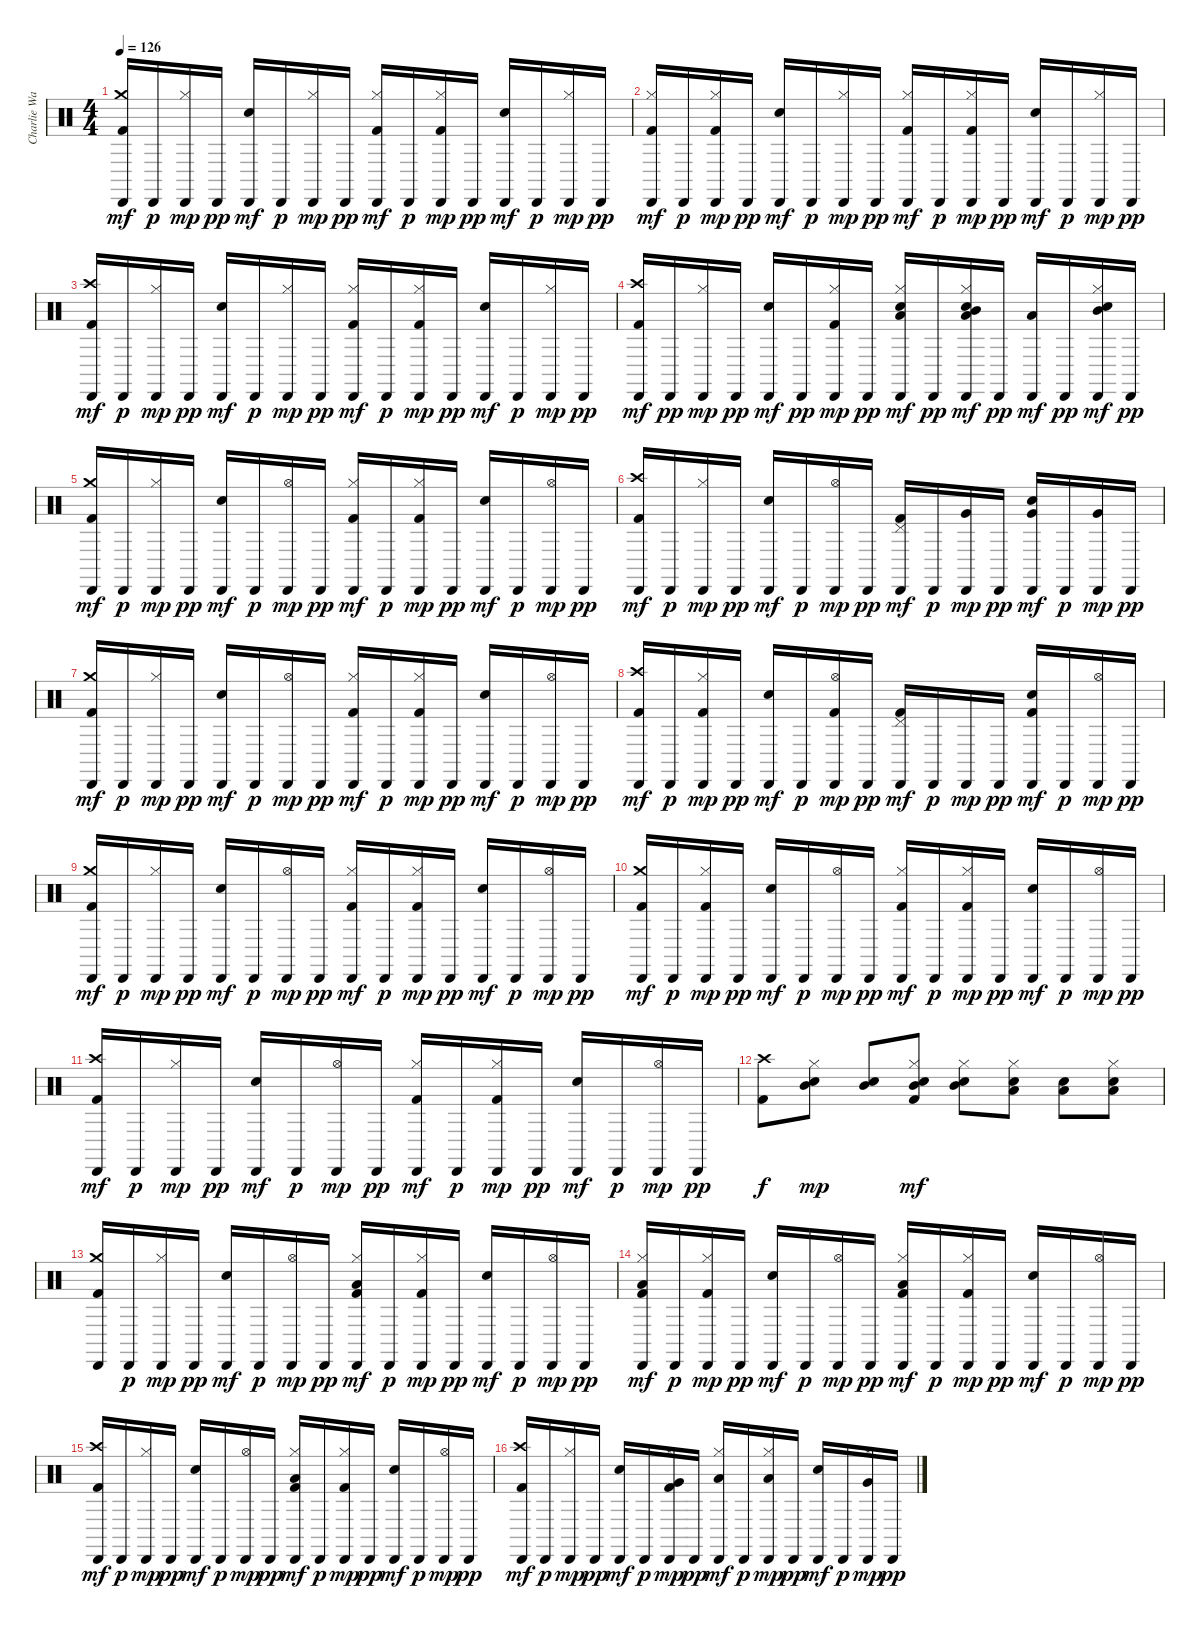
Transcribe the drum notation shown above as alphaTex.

\track ("Charlie Watts" "Charlie Wa") {instrument percussion}
\staff {score}
\articulation defaults
\ts (4 4)
\tempo 126
\clef neutral
\ks c
("Kick (hit) 2" "Crash medium (hit)" "Cabasa (hit)").16{dy mf} "Cabasa (hit)".16{dy p} ("Hi-Hat (closed)" "Cabasa (hit)").16{dy mp} "Cabasa (hit)".16{dy pp} ("Electric Snare (hit)" "Cabasa (hit)").16{dy mf} "Cabasa (hit)".16{dy p} ("Hi-Hat (closed)" "Cabasa (hit)").16{dy mp} "Cabasa (hit)".16{dy pp} ("Kick (hit) 2" "Hi-Hat (closed)" "Cabasa (hit)").16{dy mf} "Cabasa (hit)".16{dy p} ("Kick (hit) 2" "Hi-Hat (closed)" "Cabasa (hit)").16{dy mp} "Cabasa (hit)".16{dy pp} ("Electric Snare (hit)" "Cabasa (hit)").16{dy mf} "Cabasa (hit)".16{dy p} ("Hi-Hat (closed)" "Cabasa (hit)").16{dy mp} "Cabasa (hit)".16{dy pp} |
("Kick (hit) 2" "Hi-Hat (closed)" "Cabasa (hit)").16{dy mf} "Cabasa (hit)".16{dy p} ("Kick (hit) 2" "Hi-Hat (closed)" "Cabasa (hit)").16{dy mp} "Cabasa (hit)".16{dy pp} ("Electric Snare (hit)" "Cabasa (hit)").16{dy mf} "Cabasa (hit)".16{dy p} ("Hi-Hat (closed)" "Cabasa (hit)").16{dy mp} "Cabasa (hit)".16{dy pp} ("Kick (hit) 2" "Hi-Hat (closed)" "Cabasa (hit)").16{dy mf} "Cabasa (hit)".16{dy p} ("Kick (hit) 2" "Hi-Hat (closed)" "Cabasa (hit)").16{dy mp} "Cabasa (hit)".16{dy pp} ("Electric Snare (hit)" "Cabasa (hit)").16{dy mf} "Cabasa (hit)".16{dy p} ("Hi-Hat (closed)" "Cabasa (hit)").16{dy mp} "Cabasa (hit)".16{dy pp} |
("Kick (hit) 2" "Crash high (hit)" "Cabasa (hit)").16{dy mf} "Cabasa (hit)".16{dy p} ("Hi-Hat (closed)" "Cabasa (hit)").16{dy mp} "Cabasa (hit)".16{dy pp} ("Electric Snare (hit)" "Cabasa (hit)").16{dy mf} "Cabasa (hit)".16{dy p} ("Hi-Hat (closed)" "Cabasa (hit)").16{dy mp} "Cabasa (hit)".16{dy pp} ("Kick (hit) 2" "Hi-Hat (closed)" "Cabasa (hit)").16{dy mf} "Cabasa (hit)".16{dy p} ("Kick (hit) 2" "Hi-Hat (closed)" "Cabasa (hit)").16{dy mp} "Cabasa (hit)".16{dy pp} ("Electric Snare (hit)" "Cabasa (hit)").16{dy mf} "Cabasa (hit)".16{dy p} ("Hi-Hat (closed)" "Cabasa (hit)").16{dy mp} "Cabasa (hit)".16{dy pp} |
("Kick (hit) 2" "Crash high (hit)" "Cabasa (hit)").16{dy mf} "Cabasa (hit)".16{dy pp} ("Hi-Hat (closed)" "Cabasa (hit)").16{dy mp} "Cabasa (hit)".16{dy pp} ("Electric Snare (hit)" "Cabasa (hit)").16{dy mf} "Cabasa (hit)".16{dy pp} ("Kick (hit) 2" "Hi-Hat (closed)" "Cabasa (hit)").16{dy mp} "Cabasa (hit)".16{dy pp} ("Electric Snare (hit)" "Hi-Hat (closed)" "Cabasa (hit)" "Low Tom (hit)").16{dy mf} "Cabasa (hit)".16{dy pp} ("Electric Snare (hit)" "Hi-Hat (closed)" "Cabasa (hit)" "Low Tom (hit)" "Mid Tom (hit)").16{dy mf} "Cabasa (hit)".16{dy pp} ("Low Tom (hit)" "Cabasa (hit)").16{dy mf} "Cabasa (hit)".16{dy pp} ("Electric Snare (hit)" "Hi-Hat (closed)" "Cabasa (hit)" "Mid Tom (hit)").16{dy mf} "Cabasa (hit)".16{dy pp} |
("Kick (hit) 2" "Crash medium (hit)" "Cabasa (hit)").16{dy mf} "Cabasa (hit)".16{dy p} ("Hi-Hat (closed)" "Cabasa (hit)").16{dy mp} "Cabasa (hit)".16{dy pp} ("Electric Snare (hit)" "Cabasa (hit)").16{dy mf} "Cabasa (hit)".16{dy p} ("Hi-Hat (open)" "Cabasa (hit)").16{dy mp} "Cabasa (hit)".16{dy pp} ("Kick (hit) 2" "Hi-Hat (closed)" "Cabasa (hit)").16{dy mf} "Cabasa (hit)".16{dy p} ("Kick (hit) 2" "Hi-Hat (closed)" "Cabasa (hit)").16{dy mp} "Cabasa (hit)".16{dy pp} ("Electric Snare (hit)" "Cabasa (hit)").16{dy mf} "Cabasa (hit)".16{dy p} ("Hi-Hat (open)" "Cabasa (hit)").16{dy mp} "Cabasa (hit)".16{dy pp} |
("Kick (hit) 2" "Crash high (hit)" "Cabasa (hit)").16{dy mf} "Cabasa (hit)".16{dy p} ("Hi-Hat (closed)" "Cabasa (hit)").16{dy mp} "Cabasa (hit)".16{dy pp} ("Electric Snare (hit)" "Cabasa (hit)").16{dy mf} "Cabasa (hit)".16{dy p} ("Hi-Hat (open)" "Cabasa (hit)").16{dy mp} "Cabasa (hit)".16{dy pp} ("Kick (hit) 2" "Pedal Hi-Hat (hit)" "Cabasa (hit)").16{dy mf} "Cabasa (hit)".16{dy p} ("Very Low Tom (hit)" "Cabasa (hit)").16{dy mp} "Cabasa (hit)".16{dy pp} ("Electric Snare (hit)" "Very Low Tom (hit)" "Cabasa (hit)").16{dy mf} "Cabasa (hit)".16{dy p} ("Very Low Tom (hit)" "Cabasa (hit)").16{dy mp} "Cabasa (hit)".16{dy pp} |
("Kick (hit) 2" "Crash medium (hit)" "Cabasa (hit)").16{dy mf} "Cabasa (hit)".16{dy p} ("Hi-Hat (closed)" "Cabasa (hit)").16{dy mp} "Cabasa (hit)".16{dy pp} ("Electric Snare (hit)" "Cabasa (hit)").16{dy mf} "Cabasa (hit)".16{dy p} ("Hi-Hat (open)" "Cabasa (hit)").16{dy mp} "Cabasa (hit)".16{dy pp} ("Kick (hit) 2" "Hi-Hat (closed)" "Cabasa (hit)").16{dy mf} "Cabasa (hit)".16{dy p} ("Kick (hit) 2" "Hi-Hat (closed)" "Cabasa (hit)").16{dy mp} "Cabasa (hit)".16{dy pp} ("Electric Snare (hit)" "Cabasa (hit)").16{dy mf} "Cabasa (hit)".16{dy p} ("Hi-Hat (open)" "Cabasa (hit)").16{dy mp} "Cabasa (hit)".16{dy pp} |
("Kick (hit) 2" "Crash high (hit)" "Cabasa (hit)").16{dy mf} "Cabasa (hit)".16{dy p} ("Kick (hit) 2" "Hi-Hat (closed)" "Cabasa (hit)").16{dy mp} "Cabasa (hit)".16{dy pp} ("Electric Snare (hit)" "Cabasa (hit)").16{dy mf} "Cabasa (hit)".16{dy p} ("Kick (hit) 2" "Hi-Hat (open)" "Cabasa (hit)").16{dy mp} "Cabasa (hit)".16{dy pp} ("Kick (hit) 2" "Pedal Hi-Hat (hit)" "Cabasa (hit)").16{dy mf} "Cabasa (hit)".16{dy p} "Cabasa (hit)".16{dy mp} "Cabasa (hit)".16{dy pp} ("Kick (hit) 2" "Electric Snare (hit)" "Cabasa (hit)").16{dy mf} "Cabasa (hit)".16{dy p} ("Hi-Hat (open)" "Cabasa (hit)").16{dy mp} "Cabasa (hit)".16{dy pp} |
("Kick (hit) 2" "Crash medium (hit)" "Cabasa (hit)").16{dy mf} "Cabasa (hit)".16{dy p} ("Hi-Hat (closed)" "Cabasa (hit)").16{dy mp} "Cabasa (hit)".16{dy pp} ("Electric Snare (hit)" "Cabasa (hit)").16{dy mf} "Cabasa (hit)".16{dy p} ("Hi-Hat (open)" "Cabasa (hit)").16{dy mp} "Cabasa (hit)".16{dy pp} ("Kick (hit) 2" "Hi-Hat (closed)" "Cabasa (hit)").16{dy mf} "Cabasa (hit)".16{dy p} ("Kick (hit) 2" "Hi-Hat (closed)" "Cabasa (hit)").16{dy mp} "Cabasa (hit)".16{dy pp} ("Electric Snare (hit)" "Cabasa (hit)").16{dy mf} "Cabasa (hit)".16{dy p} ("Hi-Hat (open)" "Cabasa (hit)").16{dy mp} "Cabasa (hit)".16{dy pp} |
("Kick (hit) 2" "Crash medium (hit)" "Cabasa (hit)").16{dy mf} "Cabasa (hit)".16{dy p} ("Kick (hit) 2" "Hi-Hat (closed)" "Cabasa (hit)").16{dy mp} "Cabasa (hit)".16{dy pp} ("Electric Snare (hit)" "Cabasa (hit)").16{dy mf} "Cabasa (hit)".16{dy p} ("Hi-Hat (open)" "Cabasa (hit)").16{dy mp} "Cabasa (hit)".16{dy pp} ("Kick (hit) 2" "Hi-Hat (closed)" "Cabasa (hit)").16{dy mf} "Cabasa (hit)".16{dy p} ("Kick (hit) 2" "Hi-Hat (closed)" "Cabasa (hit)").16{dy mp} "Cabasa (hit)".16{dy pp} ("Electric Snare (hit)" "Cabasa (hit)").16{dy mf} "Cabasa (hit)".16{dy p} ("Hi-Hat (open)" "Cabasa (hit)").16{dy mp} "Cabasa (hit)".16{dy pp} |
("Kick (hit) 2" "Crash high (hit)" "Cabasa (hit)").16{dy mf} "Cabasa (hit)".16{dy p} ("Hi-Hat (closed)" "Cabasa (hit)").16{dy mp} "Cabasa (hit)".16{dy pp} ("Electric Snare (hit)" "Cabasa (hit)").16{dy mf} "Cabasa (hit)".16{dy p} ("Hi-Hat (open)" "Cabasa (hit)").16{dy mp} "Cabasa (hit)".16{dy pp} ("Kick (hit) 2" "Hi-Hat (closed)" "Cabasa (hit)").16{dy mf} "Cabasa (hit)".16{dy p} ("Kick (hit) 2" "Hi-Hat (closed)" "Cabasa (hit)").16{dy mp} "Cabasa (hit)".16{dy pp} ("Electric Snare (hit)" "Cabasa (hit)").16{dy mf} "Cabasa (hit)".16{dy p} ("Hi-Hat (open)" "Cabasa (hit)").16{dy mp} "Cabasa (hit)".16{dy pp} |
("Kick (hit) 2" "Crash high (hit)").8{dy f} ("Electric Snare (hit)" "Hi-Hat (closed)" "Mid Tom (hit)").8{dy mp} ("Electric Snare (hit)" "Mid Tom (hit)").8 ("Kick (hit) 2" "Electric Snare (hit)" "Hi-Hat (closed)" "Mid Tom (hit)").8{dy mf} ("Electric Snare (hit)" "Hi-Hat (closed)" "Mid Tom (hit)").8 ("Electric Snare (hit)" "Hi-Hat (closed)" "Low Tom (hit)").8 ("Electric Snare (hit)" "Low Tom (hit)").8 ("Electric Snare (hit)" "Hi-Hat (closed)" "Low Tom (hit)").8 |
("Kick (hit) 2" "Crash medium (hit)" "Cabasa (hit)").16 "Cabasa (hit)".16{dy p} ("Hi-Hat (closed)" "Cabasa (hit)").16{dy mp} "Cabasa (hit)".16{dy pp} ("Electric Snare (hit)" "Cabasa (hit)").16{dy mf} "Cabasa (hit)".16{dy p} ("Hi-Hat (open)" "Cabasa (hit)").16{dy mp} "Cabasa (hit)".16{dy pp} ("Kick (hit) 2" "Hi-Hat (closed)" "Low Tom (hit)" "Cabasa (hit)").16{dy mf} "Cabasa (hit)".16{dy p} ("Kick (hit) 2" "Hi-Hat (closed)" "Cabasa (hit)").16{dy mp} "Cabasa (hit)".16{dy pp} ("Electric Snare (hit)" "Cabasa (hit)").16{dy mf} "Cabasa (hit)".16{dy p} ("Hi-Hat (open)" "Cabasa (hit)").16{dy mp} "Cabasa (hit)".16{dy pp} |
("Kick (hit) 2" "Hi-Hat (closed)" "Low Tom (hit)" "Cabasa (hit)").16{dy mf} "Cabasa (hit)".16{dy p} ("Kick (hit) 2" "Hi-Hat (closed)" "Cabasa (hit)").16{dy mp} "Cabasa (hit)".16{dy pp} ("Electric Snare (hit)" "Cabasa (hit)").16{dy mf} "Cabasa (hit)".16{dy p} ("Hi-Hat (open)" "Cabasa (hit)").16{dy mp} "Cabasa (hit)".16{dy pp} ("Kick (hit) 2" "Hi-Hat (closed)" "Low Tom (hit)" "Cabasa (hit)").16{dy mf} "Cabasa (hit)".16{dy p} ("Kick (hit) 2" "Hi-Hat (closed)" "Cabasa (hit)").16{dy mp} "Cabasa (hit)".16{dy pp} ("Electric Snare (hit)" "Cabasa (hit)").16{dy mf} "Cabasa (hit)".16{dy p} ("Hi-Hat (open)" "Cabasa (hit)").16{dy mp} "Cabasa (hit)".16{dy pp} |
("Kick (hit) 2" "Crash high (hit)" "Cabasa (hit)").16{dy mf} "Cabasa (hit)".16{dy p} ("Hi-Hat (closed)" "Cabasa (hit)").16{dy mp} "Cabasa (hit)".16{dy pp} ("Electric Snare (hit)" "Cabasa (hit)").16{dy mf} "Cabasa (hit)".16{dy p} ("Hi-Hat (open)" "Cabasa (hit)").16{dy mp} "Cabasa (hit)".16{dy pp} ("Kick (hit) 2" "Hi-Hat (closed)" "Low Tom (hit)" "Cabasa (hit)").16{dy mf} "Cabasa (hit)".16{dy p} ("Kick (hit) 2" "Hi-Hat (closed)" "Cabasa (hit)").16{dy mp} "Cabasa (hit)".16{dy pp} ("Electric Snare (hit)" "Cabasa (hit)").16{dy mf} "Cabasa (hit)".16{dy p} ("Hi-Hat (open)" "Cabasa (hit)").16{dy mp} "Cabasa (hit)".16{dy pp} |
("Kick (hit) 2" "Crash high (hit)" "Cabasa (hit)").16{dy mf} "Cabasa (hit)".16{dy p} ("Hi-Hat (closed)" "Cabasa (hit)").16{dy mp} "Cabasa (hit)".16{dy pp} ("Electric Snare (hit)" "Cabasa (hit)").16{dy mf} "Cabasa (hit)".16{dy p} ("Kick (hit) 2" "Hi-Hat (closed)" "Very Low Tom (hit)" "Cabasa (hit)").16{dy mp} "Cabasa (hit)".16{dy pp} ("Hi-Hat (closed)" "Low Tom (hit)" "Cabasa (hit)").16{dy mf} "Cabasa (hit)".16{dy p} ("Hi-Hat (closed)" "Low Tom (hit)" "Cabasa (hit)").16{dy mp} "Cabasa (hit)".16{dy pp} ("Electric Snare (hit)" "Cabasa (hit)").16{dy mf} "Cabasa (hit)".16{dy p} ("Hi-Hat (closed)" "Very Low Tom (hit)" "Cabasa (hit)").16{dy mp} "Cabasa (hit)".16{dy pp}
